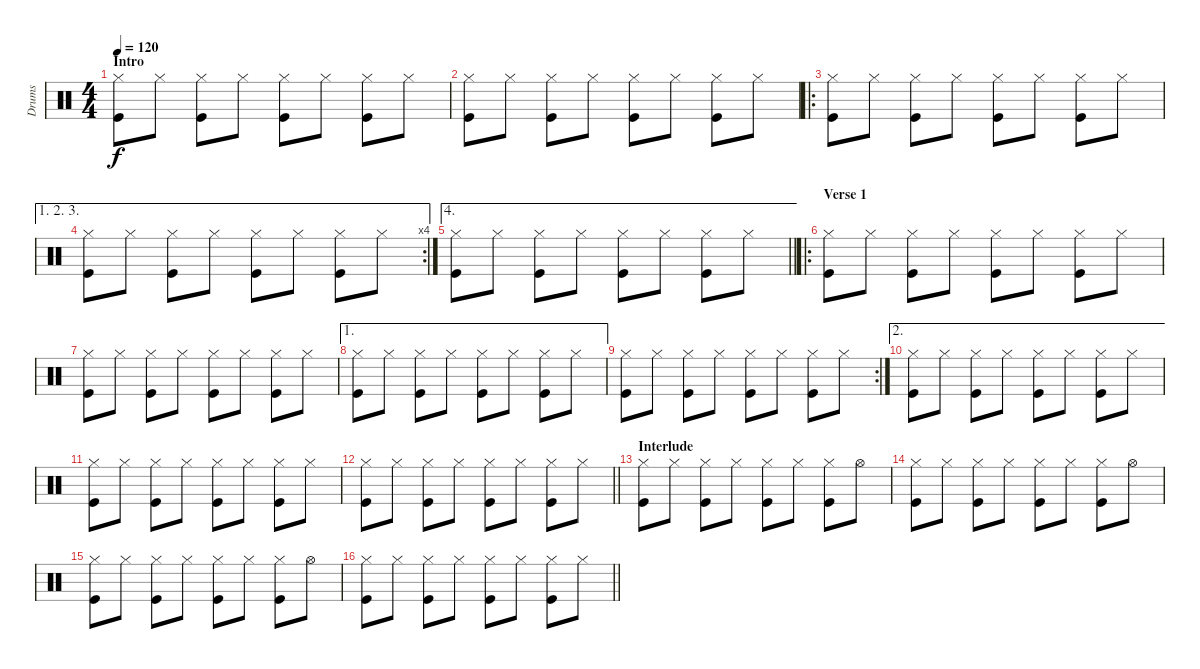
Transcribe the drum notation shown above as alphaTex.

\track ("Drums" "Drums") {instrument percussion}
\staff {score}
\articulation defaults
\ts (4 4)
\section ("" "Intro")
\tempo 120
\clef neutral
\ks c
("Hi-Hat (closed)" "Kick (hit)").8{dy f} "Hi-Hat (closed)".8 ("Hi-Hat (closed)" "Kick (hit)").8 "Hi-Hat (closed)".8 ("Hi-Hat (closed)" "Kick (hit)").8 "Hi-Hat (closed)".8 ("Hi-Hat (closed)" "Kick (hit)").8 "Hi-Hat (closed)".8 |
("Hi-Hat (closed)" "Kick (hit)").8 "Hi-Hat (closed)".8 ("Hi-Hat (closed)" "Kick (hit)").8 "Hi-Hat (closed)".8 ("Hi-Hat (closed)" "Kick (hit)").8 "Hi-Hat (closed)".8 ("Hi-Hat (closed)" "Kick (hit)").8 "Hi-Hat (closed)".8 |
\ro
("Hi-Hat (closed)" "Kick (hit)").8 "Hi-Hat (closed)".8 ("Hi-Hat (closed)" "Kick (hit)").8 "Hi-Hat (closed)".8 ("Hi-Hat (closed)" "Kick (hit)").8 "Hi-Hat (closed)".8 ("Hi-Hat (closed)" "Kick (hit)").8 "Hi-Hat (closed)".8 |
\ae (1 2 3)
\rc 4
("Hi-Hat (closed)" "Kick (hit)").8 "Hi-Hat (closed)".8 ("Hi-Hat (closed)" "Kick (hit)").8 "Hi-Hat (closed)".8 ("Hi-Hat (closed)" "Kick (hit)").8 "Hi-Hat (closed)".8 ("Hi-Hat (closed)" "Kick (hit)").8 "Hi-Hat (closed)".8 |
\ae 4
\barLineRight lightlight
("Hi-Hat (closed)" "Kick (hit)").8 "Hi-Hat (closed)".8 ("Hi-Hat (closed)" "Kick (hit)").8 "Hi-Hat (closed)".8 ("Hi-Hat (closed)" "Kick (hit)").8 "Hi-Hat (closed)".8 ("Hi-Hat (closed)" "Kick (hit)").8 "Hi-Hat (closed)".8 |
\ro
\section ("" "Verse 1")
("Hi-Hat (closed)" "Kick (hit)").8 "Hi-Hat (closed)".8 ("Hi-Hat (closed)" "Kick (hit)").8 "Hi-Hat (closed)".8 ("Hi-Hat (closed)" "Kick (hit)").8 "Hi-Hat (closed)".8 ("Hi-Hat (closed)" "Kick (hit)").8 "Hi-Hat (closed)".8 |
("Hi-Hat (closed)" "Kick (hit)").8 "Hi-Hat (closed)".8 ("Hi-Hat (closed)" "Kick (hit)").8 "Hi-Hat (closed)".8 ("Hi-Hat (closed)" "Kick (hit)").8 "Hi-Hat (closed)".8 ("Hi-Hat (closed)" "Kick (hit)").8 "Hi-Hat (closed)".8 |
\ae 1
("Hi-Hat (closed)" "Kick (hit)").8 "Hi-Hat (closed)".8 ("Hi-Hat (closed)" "Kick (hit)").8 "Hi-Hat (closed)".8 ("Hi-Hat (closed)" "Kick (hit)").8 "Hi-Hat (closed)".8 ("Hi-Hat (closed)" "Kick (hit)").8 "Hi-Hat (closed)".8 |
\rc 2
("Hi-Hat (closed)" "Kick (hit)").8 "Hi-Hat (closed)".8 ("Hi-Hat (closed)" "Kick (hit)").8 "Hi-Hat (closed)".8 ("Hi-Hat (closed)" "Kick (hit)").8 "Hi-Hat (closed)".8 ("Hi-Hat (closed)" "Kick (hit)").8 "Hi-Hat (closed)".8 |
\ae 2
("Hi-Hat (closed)" "Kick (hit)").8 "Hi-Hat (closed)".8 ("Hi-Hat (closed)" "Kick (hit)").8 "Hi-Hat (closed)".8 ("Hi-Hat (closed)" "Kick (hit)").8 "Hi-Hat (closed)".8 ("Hi-Hat (closed)" "Kick (hit)").8 "Hi-Hat (closed)".8 |
("Hi-Hat (closed)" "Kick (hit)").8 "Hi-Hat (closed)".8 ("Hi-Hat (closed)" "Kick (hit)").8 "Hi-Hat (closed)".8 ("Hi-Hat (closed)" "Kick (hit)").8 "Hi-Hat (closed)".8 ("Hi-Hat (closed)" "Kick (hit)").8 "Hi-Hat (closed)".8 |
\barLineRight lightlight
("Hi-Hat (closed)" "Kick (hit)").8 "Hi-Hat (closed)".8 ("Hi-Hat (closed)" "Kick (hit)").8 "Hi-Hat (closed)".8 ("Hi-Hat (closed)" "Kick (hit)").8 "Hi-Hat (closed)".8 ("Hi-Hat (closed)" "Kick (hit)").8 "Hi-Hat (closed)".8 |
\section ("" "Interlude")
("Hi-Hat (closed)" "Kick (hit)").8 "Hi-Hat (closed)".8 ("Hi-Hat (closed)" "Kick (hit)").8 "Hi-Hat (closed)".8 ("Hi-Hat (closed)" "Kick (hit)").8 "Hi-Hat (closed)".8 ("Hi-Hat (closed)" "Kick (hit)").8 "Hi-Hat (open)".8 |
("Hi-Hat (closed)" "Kick (hit)").8 "Hi-Hat (closed)".8 ("Hi-Hat (closed)" "Kick (hit)").8 "Hi-Hat (closed)".8 ("Hi-Hat (closed)" "Kick (hit)").8 "Hi-Hat (closed)".8 ("Hi-Hat (closed)" "Kick (hit)").8 "Hi-Hat (open)".8 |
("Hi-Hat (closed)" "Kick (hit)").8 "Hi-Hat (closed)".8 ("Hi-Hat (closed)" "Kick (hit)").8 "Hi-Hat (closed)".8 ("Hi-Hat (closed)" "Kick (hit)").8 "Hi-Hat (closed)".8 ("Hi-Hat (closed)" "Kick (hit)").8 "Hi-Hat (open)".8 |
\barLineRight lightlight
("Hi-Hat (closed)" "Kick (hit)").8 "Hi-Hat (closed)".8 ("Hi-Hat (closed)" "Kick (hit)").8 "Hi-Hat (closed)".8 ("Hi-Hat (closed)" "Kick (hit)").8 "Hi-Hat (closed)".8 ("Hi-Hat (closed)" "Kick (hit)").8 "Hi-Hat (closed)".8
